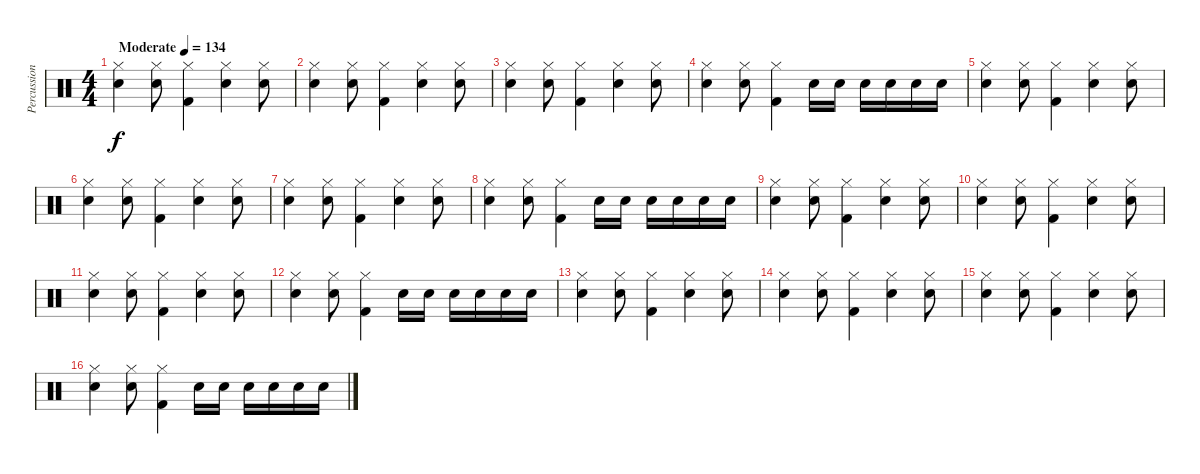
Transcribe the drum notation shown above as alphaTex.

\track ("Percussion" "Percussion") {instrument percussion}
\staff {score}
\articulation defaults
\ts (4 4)
\tempo (134 "Moderate")
\clef neutral
\ks c
("Hi-Hat (closed)" "Electric Snare (hit)").4{dy f} ("Hi-Hat (closed)" "Electric Snare (hit)").8 ("Hi-Hat (closed)" "Kick (hit) 2").4 ("Hi-Hat (closed)" "Electric Snare (hit)").4 ("Hi-Hat (closed)" "Electric Snare (hit)").8 |
("Hi-Hat (closed)" "Electric Snare (hit)").4 ("Hi-Hat (closed)" "Electric Snare (hit)").8 ("Hi-Hat (closed)" "Kick (hit) 2").4 ("Hi-Hat (closed)" "Electric Snare (hit)").4 ("Hi-Hat (closed)" "Electric Snare (hit)").8 |
("Hi-Hat (closed)" "Electric Snare (hit)").4 ("Hi-Hat (closed)" "Electric Snare (hit)").8 ("Hi-Hat (closed)" "Kick (hit) 2").4 ("Hi-Hat (closed)" "Electric Snare (hit)").4 ("Hi-Hat (closed)" "Electric Snare (hit)").8 |
("Hi-Hat (closed)" "Electric Snare (hit)").4 ("Hi-Hat (closed)" "Electric Snare (hit)").8 ("Hi-Hat (closed)" "Kick (hit) 2").4 "Electric Snare (hit)".16 "Electric Snare (hit)".16 "Electric Snare (hit)".16 "Electric Snare (hit)".16 "Electric Snare (hit)".16 "Electric Snare (hit)".16 |
("Hi-Hat (closed)" "Electric Snare (hit)").4 ("Hi-Hat (closed)" "Electric Snare (hit)").8 ("Hi-Hat (closed)" "Kick (hit) 2").4 ("Hi-Hat (closed)" "Electric Snare (hit)").4 ("Hi-Hat (closed)" "Electric Snare (hit)").8 |
("Hi-Hat (closed)" "Electric Snare (hit)").4 ("Hi-Hat (closed)" "Electric Snare (hit)").8 ("Hi-Hat (closed)" "Kick (hit) 2").4 ("Hi-Hat (closed)" "Electric Snare (hit)").4 ("Hi-Hat (closed)" "Electric Snare (hit)").8 |
("Hi-Hat (closed)" "Electric Snare (hit)").4 ("Hi-Hat (closed)" "Electric Snare (hit)").8 ("Hi-Hat (closed)" "Kick (hit) 2").4 ("Hi-Hat (closed)" "Electric Snare (hit)").4 ("Hi-Hat (closed)" "Electric Snare (hit)").8 |
("Hi-Hat (closed)" "Electric Snare (hit)").4 ("Hi-Hat (closed)" "Electric Snare (hit)").8 ("Hi-Hat (closed)" "Kick (hit) 2").4 "Electric Snare (hit)".16 "Electric Snare (hit)".16 "Electric Snare (hit)".16 "Electric Snare (hit)".16 "Electric Snare (hit)".16 "Electric Snare (hit)".16 |
("Hi-Hat (closed)" "Electric Snare (hit)").4 ("Hi-Hat (closed)" "Electric Snare (hit)").8 ("Hi-Hat (closed)" "Kick (hit) 2").4 ("Hi-Hat (closed)" "Electric Snare (hit)").4 ("Hi-Hat (closed)" "Electric Snare (hit)").8 |
("Hi-Hat (closed)" "Electric Snare (hit)").4 ("Hi-Hat (closed)" "Electric Snare (hit)").8 ("Hi-Hat (closed)" "Kick (hit) 2").4 ("Hi-Hat (closed)" "Electric Snare (hit)").4 ("Hi-Hat (closed)" "Electric Snare (hit)").8 |
("Hi-Hat (closed)" "Electric Snare (hit)").4 ("Hi-Hat (closed)" "Electric Snare (hit)").8 ("Hi-Hat (closed)" "Kick (hit) 2").4 ("Hi-Hat (closed)" "Electric Snare (hit)").4 ("Hi-Hat (closed)" "Electric Snare (hit)").8 |
("Hi-Hat (closed)" "Electric Snare (hit)").4 ("Hi-Hat (closed)" "Electric Snare (hit)").8 ("Hi-Hat (closed)" "Kick (hit) 2").4 "Electric Snare (hit)".16 "Electric Snare (hit)".16 "Electric Snare (hit)".16 "Electric Snare (hit)".16 "Electric Snare (hit)".16 "Electric Snare (hit)".16 |
("Hi-Hat (closed)" "Electric Snare (hit)").4 ("Hi-Hat (closed)" "Electric Snare (hit)").8 ("Hi-Hat (closed)" "Kick (hit) 2").4 ("Hi-Hat (closed)" "Electric Snare (hit)").4 ("Hi-Hat (closed)" "Electric Snare (hit)").8 |
("Hi-Hat (closed)" "Electric Snare (hit)").4 ("Hi-Hat (closed)" "Electric Snare (hit)").8 ("Hi-Hat (closed)" "Kick (hit) 2").4 ("Hi-Hat (closed)" "Electric Snare (hit)").4 ("Hi-Hat (closed)" "Electric Snare (hit)").8 |
("Hi-Hat (closed)" "Electric Snare (hit)").4 ("Hi-Hat (closed)" "Electric Snare (hit)").8 ("Hi-Hat (closed)" "Kick (hit) 2").4 ("Hi-Hat (closed)" "Electric Snare (hit)").4 ("Hi-Hat (closed)" "Electric Snare (hit)").8 |
("Hi-Hat (closed)" "Electric Snare (hit)").4 ("Hi-Hat (closed)" "Electric Snare (hit)").8 ("Hi-Hat (closed)" "Kick (hit) 2").4 "Electric Snare (hit)".16 "Electric Snare (hit)".16 "Electric Snare (hit)".16 "Electric Snare (hit)".16 "Electric Snare (hit)".16 "Electric Snare (hit)".16
